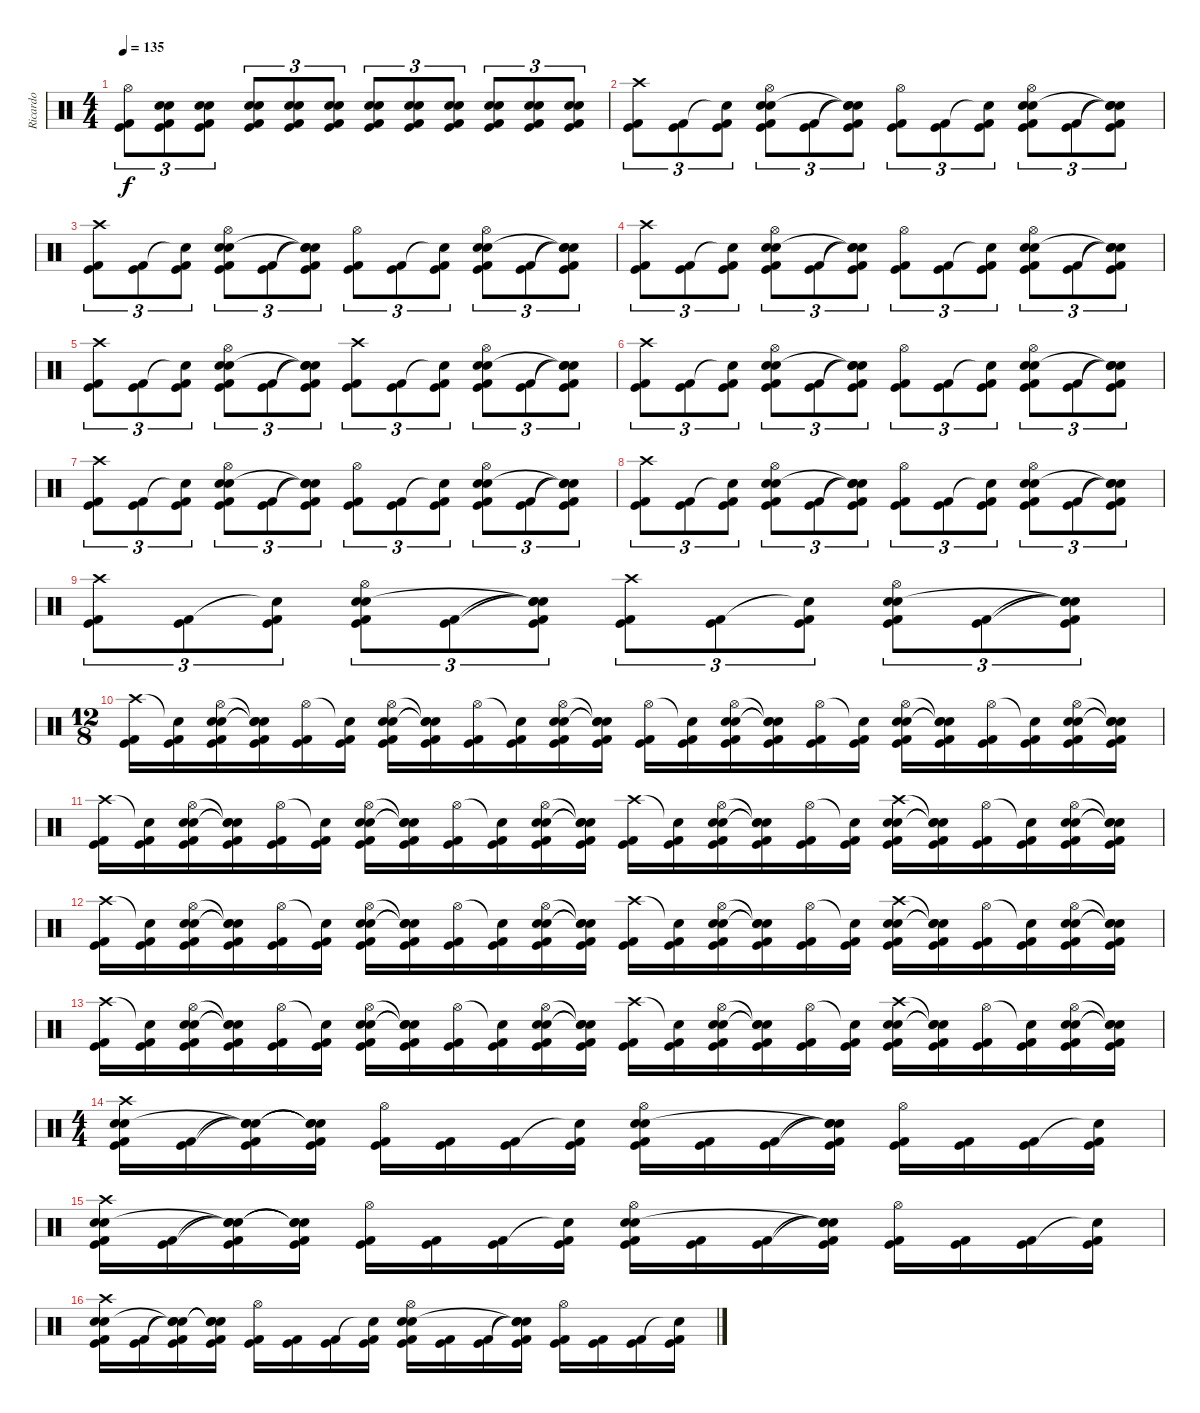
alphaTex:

\track ("Ricardo" "Ricardo") {instrument percussion}
\staff {score}
\articulation defaults
\ts (4 4)
\tempo 135
\clef neutral
\ks c
("Hi-Hat (open)" "Kick (hit) 2" "Kick (hit)").8{tu (3 2) dy f} ("Electric Snare (hit)" "Snare (hit) 2" "Kick (hit) 2" "Kick (hit)").8{tu (3 2)} ("Electric Snare (hit)" "Snare (hit) 2" "Kick (hit) 2" "Kick (hit)").8{tu (3 2)} ("Electric Snare (hit)" "Snare (hit) 2" "Kick (hit) 2" "Kick (hit)").8{tu (3 2)} ("Electric Snare (hit)" "Snare (hit) 2" "Kick (hit) 2" "Kick (hit)").8{tu (3 2)} ("Electric Snare (hit)" "Snare (hit) 2" "Kick (hit) 2" "Kick (hit)").8{tu (3 2)} ("Electric Snare (hit)" "Snare (hit) 2" "Kick (hit) 2" "Kick (hit)").8{tu (3 2)} ("Electric Snare (hit)" "Snare (hit) 2" "Kick (hit) 2" "Kick (hit)").8{tu (3 2)} ("Electric Snare (hit)" "Snare (hit) 2" "Kick (hit) 2" "Kick (hit)").8{tu (3 2)} ("Electric Snare (hit)" "Snare (hit) 2" "Kick (hit) 2" "Kick (hit)").8{tu (3 2)} ("Electric Snare (hit)" "Snare (hit) 2" "Kick (hit) 2" "Kick (hit)").8{tu (3 2)} ("Electric Snare (hit)" "Snare (hit) 2" "Kick (hit) 2" "Kick (hit)").8{tu (3 2)} |
("Crash high (hit)" "Kick (hit) 2" "Kick (hit)").8{tu (3 2)} ("Kick (hit) 2" "Kick (hit)").8{tu (3 2)} ("Snare (hit)"{t} "Kick (hit) 2" "Kick (hit)").8{tu (3 2)} ("Hi-Hat (open)" "Electric Snare (hit)" "Snare (hit) 2" "Kick (hit) 2" "Kick (hit)").8{tu (3 2)} ("Kick (hit) 2" "Kick (hit)").8{tu (3 2)} ("Snare (hit)"{t} "Snare (hit)"{t} "Snare (hit)"{t} "Kick (hit) 2" "Kick (hit)").8{tu (3 2)} ("Hi-Hat (open)" "Kick (hit) 2" "Kick (hit)").8{tu (3 2)} ("Kick (hit) 2" "Kick (hit)").8{tu (3 2)} ("Snare (hit)"{t} "Kick (hit) 2" "Kick (hit)").8{tu (3 2)} ("Hi-Hat (open)" "Electric Snare (hit)" "Snare (hit) 2" "Kick (hit) 2" "Kick (hit)").8{tu (3 2)} ("Kick (hit) 2" "Kick (hit)").8{tu (3 2)} ("Snare (hit)"{t} "Snare (hit)"{t} "Snare (hit)"{t} "Kick (hit) 2" "Kick (hit)").8{tu (3 2)} |
("Crash high (hit)" "Kick (hit) 2" "Kick (hit)").8{tu (3 2)} ("Kick (hit) 2" "Kick (hit)").8{tu (3 2)} ("Snare (hit)"{t} "Kick (hit) 2" "Kick (hit)").8{tu (3 2)} ("Hi-Hat (open)" "Electric Snare (hit)" "Snare (hit) 2" "Kick (hit) 2" "Kick (hit)").8{tu (3 2)} ("Kick (hit) 2" "Kick (hit)").8{tu (3 2)} ("Snare (hit)"{t} "Snare (hit)"{t} "Snare (hit)"{t} "Kick (hit) 2" "Kick (hit)").8{tu (3 2)} ("Hi-Hat (open)" "Kick (hit) 2" "Kick (hit)").8{tu (3 2)} ("Kick (hit) 2" "Kick (hit)").8{tu (3 2)} ("Snare (hit)"{t} "Kick (hit) 2" "Kick (hit)").8{tu (3 2)} ("Hi-Hat (open)" "Electric Snare (hit)" "Snare (hit) 2" "Kick (hit) 2" "Kick (hit)").8{tu (3 2)} ("Kick (hit) 2" "Kick (hit)").8{tu (3 2)} ("Snare (hit)"{t} "Snare (hit)"{t} "Snare (hit)"{t} "Kick (hit) 2" "Kick (hit)").8{tu (3 2)} |
("Crash high (hit)" "Kick (hit) 2" "Kick (hit)").8{tu (3 2)} ("Kick (hit) 2" "Kick (hit)").8{tu (3 2)} ("Snare (hit)"{t} "Kick (hit) 2" "Kick (hit)").8{tu (3 2)} ("Hi-Hat (open)" "Electric Snare (hit)" "Snare (hit) 2" "Kick (hit) 2" "Kick (hit)").8{tu (3 2)} ("Kick (hit) 2" "Kick (hit)").8{tu (3 2)} ("Snare (hit)"{t} "Snare (hit)"{t} "Snare (hit)"{t} "Kick (hit) 2" "Kick (hit)").8{tu (3 2)} ("Hi-Hat (open)" "Kick (hit) 2" "Kick (hit)").8{tu (3 2)} ("Kick (hit) 2" "Kick (hit)").8{tu (3 2)} ("Snare (hit)"{t} "Kick (hit) 2" "Kick (hit)").8{tu (3 2)} ("Hi-Hat (open)" "Electric Snare (hit)" "Snare (hit) 2" "Kick (hit) 2" "Kick (hit)").8{tu (3 2)} ("Kick (hit) 2" "Kick (hit)").8{tu (3 2)} ("Snare (hit)"{t} "Snare (hit)"{t} "Snare (hit)"{t} "Kick (hit) 2" "Kick (hit)").8{tu (3 2)} |
("Crash high (hit)" "Kick (hit) 2" "Kick (hit)").8{tu (3 2)} ("Kick (hit) 2" "Kick (hit)").8{tu (3 2)} ("Snare (hit)"{t} "Kick (hit) 2" "Kick (hit)").8{tu (3 2)} ("Hi-Hat (open)" "Electric Snare (hit)" "Snare (hit) 2" "Kick (hit) 2" "Kick (hit)").8{tu (3 2)} ("Kick (hit) 2" "Kick (hit)").8{tu (3 2)} ("Snare (hit)"{t} "Snare (hit)"{t} "Snare (hit)"{t} "Kick (hit) 2" "Kick (hit)").8{tu (3 2)} ("Crash high (hit)" "Kick (hit) 2" "Kick (hit)").8{tu (3 2)} ("Kick (hit) 2" "Kick (hit)").8{tu (3 2)} ("Snare (hit)"{t} "Kick (hit) 2" "Kick (hit)").8{tu (3 2)} ("Hi-Hat (open)" "Electric Snare (hit)" "Snare (hit) 2" "Kick (hit) 2" "Kick (hit)").8{tu (3 2)} ("Kick (hit) 2" "Kick (hit)").8{tu (3 2)} ("Snare (hit)"{t} "Snare (hit)"{t} "Snare (hit)"{t} "Kick (hit) 2" "Kick (hit)").8{tu (3 2)} |
("Crash high (hit)" "Kick (hit) 2" "Kick (hit)").8{tu (3 2)} ("Kick (hit) 2" "Kick (hit)").8{tu (3 2)} ("Snare (hit)"{t} "Kick (hit) 2" "Kick (hit)").8{tu (3 2)} ("Hi-Hat (open)" "Electric Snare (hit)" "Snare (hit) 2" "Kick (hit) 2" "Kick (hit)").8{tu (3 2)} ("Kick (hit) 2" "Kick (hit)").8{tu (3 2)} ("Snare (hit)"{t} "Snare (hit)"{t} "Snare (hit)"{t} "Kick (hit) 2" "Kick (hit)").8{tu (3 2)} ("Hi-Hat (open)" "Kick (hit) 2" "Kick (hit)").8{tu (3 2)} ("Kick (hit) 2" "Kick (hit)").8{tu (3 2)} ("Snare (hit)"{t} "Kick (hit) 2" "Kick (hit)").8{tu (3 2)} ("Hi-Hat (open)" "Electric Snare (hit)" "Snare (hit) 2" "Kick (hit) 2" "Kick (hit)").8{tu (3 2)} ("Kick (hit) 2" "Kick (hit)").8{tu (3 2)} ("Snare (hit)"{t} "Snare (hit)"{t} "Snare (hit)"{t} "Kick (hit) 2" "Kick (hit)").8{tu (3 2)} |
("Crash high (hit)" "Kick (hit) 2" "Kick (hit)").8{tu (3 2)} ("Kick (hit) 2" "Kick (hit)").8{tu (3 2)} ("Snare (hit)"{t} "Kick (hit) 2" "Kick (hit)").8{tu (3 2)} ("Hi-Hat (open)" "Electric Snare (hit)" "Snare (hit) 2" "Kick (hit) 2" "Kick (hit)").8{tu (3 2)} ("Kick (hit) 2" "Kick (hit)").8{tu (3 2)} ("Snare (hit)"{t} "Snare (hit)"{t} "Snare (hit)"{t} "Kick (hit) 2" "Kick (hit)").8{tu (3 2)} ("Hi-Hat (open)" "Kick (hit) 2" "Kick (hit)").8{tu (3 2)} ("Kick (hit) 2" "Kick (hit)").8{tu (3 2)} ("Snare (hit)"{t} "Kick (hit) 2" "Kick (hit)").8{tu (3 2)} ("Hi-Hat (open)" "Electric Snare (hit)" "Snare (hit) 2" "Kick (hit) 2" "Kick (hit)").8{tu (3 2)} ("Kick (hit) 2" "Kick (hit)").8{tu (3 2)} ("Snare (hit)"{t} "Snare (hit)"{t} "Snare (hit)"{t} "Kick (hit) 2" "Kick (hit)").8{tu (3 2)} |
("Crash high (hit)" "Kick (hit) 2" "Kick (hit)").8{tu (3 2)} ("Kick (hit) 2" "Kick (hit)").8{tu (3 2)} ("Snare (hit)"{t} "Kick (hit) 2" "Kick (hit)").8{tu (3 2)} ("Hi-Hat (open)" "Electric Snare (hit)" "Snare (hit) 2" "Kick (hit) 2" "Kick (hit)").8{tu (3 2)} ("Kick (hit) 2" "Kick (hit)").8{tu (3 2)} ("Snare (hit)"{t} "Snare (hit)"{t} "Snare (hit)"{t} "Kick (hit) 2" "Kick (hit)").8{tu (3 2)} ("Hi-Hat (open)" "Kick (hit) 2" "Kick (hit)").8{tu (3 2)} ("Kick (hit) 2" "Kick (hit)").8{tu (3 2)} ("Snare (hit)"{t} "Kick (hit) 2" "Kick (hit)").8{tu (3 2)} ("Hi-Hat (open)" "Electric Snare (hit)" "Snare (hit) 2" "Kick (hit) 2" "Kick (hit)").8{tu (3 2)} ("Kick (hit) 2" "Kick (hit)").8{tu (3 2)} ("Snare (hit)"{t} "Snare (hit)"{t} "Snare (hit)"{t} "Kick (hit) 2" "Kick (hit)").8{tu (3 2)} |
("Crash high (hit)" "Kick (hit) 2" "Kick (hit)").8{tu (3 2)} ("Kick (hit) 2" "Kick (hit)").8{tu (3 2)} ("Snare (hit)"{t} "Kick (hit) 2" "Kick (hit)").8{tu (3 2)} ("Hi-Hat (open)" "Electric Snare (hit)" "Snare (hit) 2" "Kick (hit) 2" "Kick (hit)").8{tu (3 2)} ("Kick (hit) 2" "Kick (hit)").8{tu (3 2)} ("Snare (hit)"{t} "Snare (hit)"{t} "Snare (hit)"{t} "Kick (hit) 2" "Kick (hit)").8{tu (3 2)} ("Crash high (hit)" "Kick (hit) 2" "Kick (hit)").8{tu (3 2)} ("Kick (hit) 2" "Kick (hit)").8{tu (3 2)} ("Snare (hit)"{t} "Kick (hit) 2" "Kick (hit)").8{tu (3 2)} ("Hi-Hat (open)" "Electric Snare (hit)" "Snare (hit) 2" "Kick (hit) 2" "Kick (hit)").8{tu (3 2)} ("Kick (hit) 2" "Kick (hit)").8{tu (3 2)} ("Snare (hit)"{t} "Snare (hit)"{t} "Snare (hit)"{t} "Kick (hit) 2" "Kick (hit)").8{tu (3 2)} |
\ts (12 8)
("Crash high (hit)" "Kick (hit)" "Kick (hit) 2").16 ("Snare (hit)"{t} "Kick (hit)" "Kick (hit) 2").16 ("Hi-Hat (open)" "Electric Snare (hit)" "Snare (hit) 2" "Kick (hit)" "Kick (hit) 2").16 ("Snare (hit)"{t} "Snare (hit)"{t} "Snare (hit)"{t} "Kick (hit)" "Kick (hit) 2").16 ("Hi-Hat (open)" "Kick (hit)" "Kick (hit) 2").16 ("Snare (hit)"{t} "Kick (hit)" "Kick (hit) 2").16 ("Hi-Hat (open)" "Electric Snare (hit)" "Snare (hit) 2" "Kick (hit)" "Kick (hit) 2").16 ("Snare (hit)"{t} "Snare (hit)"{t} "Snare (hit)"{t} "Kick (hit)" "Kick (hit) 2").16 ("Hi-Hat (open)" "Kick (hit)" "Kick (hit) 2").16 ("Snare (hit)"{t} "Kick (hit)" "Kick (hit) 2").16 ("Hi-Hat (open)" "Electric Snare (hit)" "Snare (hit) 2" "Kick (hit)" "Kick (hit) 2").16 ("Snare (hit)"{t} "Snare (hit)"{t} "Snare (hit)"{t} "Kick (hit)" "Kick (hit) 2").16 ("Hi-Hat (open)" "Kick (hit)" "Kick (hit) 2").16 ("Snare (hit)"{t} "Kick (hit)" "Kick (hit) 2").16 ("Hi-Hat (open)" "Electric Snare (hit)" "Snare (hit) 2" "Kick (hit)" "Kick (hit) 2").16 ("Snare (hit)"{t} "Snare (hit)"{t} "Snare (hit)"{t} "Kick (hit)" "Kick (hit) 2").16 ("Hi-Hat (open)" "Kick (hit)" "Kick (hit) 2").16 ("Snare (hit)"{t} "Kick (hit)" "Kick (hit) 2").16 ("Hi-Hat (open)" "Electric Snare (hit)" "Snare (hit) 2" "Kick (hit)" "Kick (hit) 2").16 ("Snare (hit)"{t} "Snare (hit)"{t} "Snare (hit)"{t} "Kick (hit)" "Kick (hit) 2").16 ("Hi-Hat (open)" "Kick (hit)" "Kick (hit) 2").16 ("Snare (hit)"{t} "Kick (hit)" "Kick (hit) 2").16 ("Electric Snare (hit)" "Snare (hit) 2" "Hi-Hat (open)" "Kick (hit)" "Kick (hit) 2").16 ("Snare (hit)"{t} "Snare (hit)"{t} "Snare (hit)"{t} "Kick (hit)" "Kick (hit) 2").16 |
("Crash high (hit)" "Kick (hit)" "Kick (hit) 2").16 ("Snare (hit)"{t} "Kick (hit)" "Kick (hit) 2").16 ("Hi-Hat (open)" "Electric Snare (hit)" "Snare (hit) 2" "Kick (hit)" "Kick (hit) 2").16 ("Snare (hit)"{t} "Snare (hit)"{t} "Snare (hit)"{t} "Kick (hit)" "Kick (hit) 2").16 ("Hi-Hat (open)" "Kick (hit)" "Kick (hit) 2").16 ("Snare (hit)"{t} "Kick (hit)" "Kick (hit) 2").16 ("Hi-Hat (open)" "Electric Snare (hit)" "Snare (hit) 2" "Kick (hit)" "Kick (hit) 2").16 ("Snare (hit)"{t} "Snare (hit)"{t} "Snare (hit)"{t} "Kick (hit)" "Kick (hit) 2").16 ("Hi-Hat (open)" "Kick (hit)" "Kick (hit) 2").16 ("Snare (hit)"{t} "Kick (hit)" "Kick (hit) 2").16 ("Hi-Hat (open)" "Electric Snare (hit)" "Snare (hit) 2" "Kick (hit)" "Kick (hit) 2").16 ("Snare (hit)"{t} "Snare (hit)"{t} "Snare (hit)"{t} "Kick (hit)" "Kick (hit) 2").16 ("Crash high (hit)" "Kick (hit)" "Kick (hit) 2").16 ("Snare (hit)"{t} "Kick (hit)" "Kick (hit) 2").16 ("Hi-Hat (open)" "Electric Snare (hit)" "Snare (hit) 2" "Kick (hit)" "Kick (hit) 2").16 ("Snare (hit)"{t} "Snare (hit)"{t} "Snare (hit)"{t} "Kick (hit)" "Kick (hit) 2").16 ("Hi-Hat (open)" "Kick (hit)" "Kick (hit) 2").16 ("Snare (hit)"{t} "Kick (hit)" "Kick (hit) 2").16 ("Crash high (hit)" "Electric Snare (hit)" "Snare (hit) 2" "Kick (hit)" "Kick (hit) 2").16 ("Snare (hit)"{t} "Snare (hit)"{t} "Snare (hit)"{t} "Kick (hit)" "Kick (hit) 2").16 ("Hi-Hat (open)" "Kick (hit)" "Kick (hit) 2").16 ("Snare (hit)"{t} "Kick (hit)" "Kick (hit) 2").16 ("Electric Snare (hit)" "Snare (hit) 2" "Hi-Hat (open)" "Kick (hit)" "Kick (hit) 2").16 ("Snare (hit)"{t} "Snare (hit)"{t} "Snare (hit)"{t} "Kick (hit)" "Kick (hit) 2").16 |
("Crash high (hit)" "Kick (hit)" "Kick (hit) 2").16 ("Snare (hit)"{t} "Kick (hit)" "Kick (hit) 2").16 ("Hi-Hat (open)" "Electric Snare (hit)" "Snare (hit) 2" "Kick (hit)" "Kick (hit) 2").16 ("Snare (hit)"{t} "Snare (hit)"{t} "Snare (hit)"{t} "Kick (hit)" "Kick (hit) 2").16 ("Hi-Hat (open)" "Kick (hit)" "Kick (hit) 2").16 ("Snare (hit)"{t} "Kick (hit)" "Kick (hit) 2").16 ("Hi-Hat (open)" "Electric Snare (hit)" "Snare (hit) 2" "Kick (hit)" "Kick (hit) 2").16 ("Snare (hit)"{t} "Snare (hit)"{t} "Snare (hit)"{t} "Kick (hit)" "Kick (hit) 2").16 ("Hi-Hat (open)" "Kick (hit)" "Kick (hit) 2").16 ("Snare (hit)"{t} "Kick (hit)" "Kick (hit) 2").16 ("Hi-Hat (open)" "Electric Snare (hit)" "Snare (hit) 2" "Kick (hit)" "Kick (hit) 2").16 ("Snare (hit)"{t} "Snare (hit)"{t} "Snare (hit)"{t} "Kick (hit)" "Kick (hit) 2").16 ("Crash high (hit)" "Kick (hit)" "Kick (hit) 2").16 ("Snare (hit)"{t} "Kick (hit)" "Kick (hit) 2").16 ("Hi-Hat (open)" "Electric Snare (hit)" "Snare (hit) 2" "Kick (hit)" "Kick (hit) 2").16 ("Snare (hit)"{t} "Snare (hit)"{t} "Snare (hit)"{t} "Kick (hit)" "Kick (hit) 2").16 ("Hi-Hat (open)" "Kick (hit)" "Kick (hit) 2").16 ("Snare (hit)"{t} "Kick (hit)" "Kick (hit) 2").16 ("Crash high (hit)" "Electric Snare (hit)" "Snare (hit) 2" "Kick (hit)" "Kick (hit) 2").16 ("Snare (hit)"{t} "Snare (hit)"{t} "Snare (hit)"{t} "Kick (hit)" "Kick (hit) 2").16 ("Hi-Hat (open)" "Kick (hit)" "Kick (hit) 2").16 ("Snare (hit)"{t} "Kick (hit)" "Kick (hit) 2").16 ("Electric Snare (hit)" "Snare (hit) 2" "Hi-Hat (open)" "Kick (hit)" "Kick (hit) 2").16 ("Snare (hit)"{t} "Snare (hit)"{t} "Snare (hit)"{t} "Kick (hit)" "Kick (hit) 2").16 |
("Crash high (hit)" "Kick (hit)" "Kick (hit) 2").16 ("Snare (hit)"{t} "Kick (hit)" "Kick (hit) 2").16 ("Hi-Hat (open)" "Electric Snare (hit)" "Snare (hit) 2" "Kick (hit)" "Kick (hit) 2").16 ("Snare (hit)"{t} "Snare (hit)"{t} "Snare (hit)"{t} "Kick (hit)" "Kick (hit) 2").16 ("Hi-Hat (open)" "Kick (hit)" "Kick (hit) 2").16 ("Snare (hit)"{t} "Kick (hit)" "Kick (hit) 2").16 ("Hi-Hat (open)" "Electric Snare (hit)" "Snare (hit) 2" "Kick (hit)" "Kick (hit) 2").16 ("Snare (hit)"{t} "Snare (hit)"{t} "Snare (hit)"{t} "Kick (hit)" "Kick (hit) 2").16 ("Hi-Hat (open)" "Kick (hit)" "Kick (hit) 2").16 ("Snare (hit)"{t} "Kick (hit)" "Kick (hit) 2").16 ("Hi-Hat (open)" "Electric Snare (hit)" "Snare (hit) 2" "Kick (hit)" "Kick (hit) 2").16 ("Snare (hit)"{t} "Snare (hit)"{t} "Snare (hit)"{t} "Kick (hit)" "Kick (hit) 2").16 ("Crash high (hit)" "Kick (hit)" "Kick (hit) 2").16 ("Snare (hit)"{t} "Kick (hit)" "Kick (hit) 2").16 ("Hi-Hat (open)" "Electric Snare (hit)" "Snare (hit) 2" "Kick (hit)" "Kick (hit) 2").16 ("Snare (hit)"{t} "Snare (hit)"{t} "Snare (hit)"{t} "Kick (hit)" "Kick (hit) 2").16 ("Hi-Hat (open)" "Kick (hit)" "Kick (hit) 2").16 ("Snare (hit)"{t} "Kick (hit)" "Kick (hit) 2").16 ("Crash high (hit)" "Electric Snare (hit)" "Snare (hit) 2" "Kick (hit)" "Kick (hit) 2").16 ("Snare (hit)"{t} "Snare (hit)"{t} "Snare (hit)"{t} "Kick (hit)" "Kick (hit) 2").16 ("Hi-Hat (open)" "Kick (hit)" "Kick (hit) 2").16 ("Snare (hit)"{t} "Kick (hit)" "Kick (hit) 2").16 ("Electric Snare (hit)" "Snare (hit) 2" "Hi-Hat (open)" "Kick (hit)" "Kick (hit) 2").16 ("Snare (hit)"{t} "Snare (hit)"{t} "Snare (hit)"{t} "Kick (hit)" "Kick (hit) 2").16 |
\ts (4 4)
("Crash high (hit)" "Electric Snare (hit)" "Snare (hit) 2" "Kick (hit)" "Kick (hit) 2").16 ("Kick (hit)" "Kick (hit) 2").16 ("Snare (hit)"{t} "Snare (hit)"{t} "Snare (hit)"{t} "Kick (hit)" "Kick (hit) 2").16 ("Snare (hit)"{t} "Snare (hit)"{t} "Snare (hit)"{t} "Kick (hit)" "Kick (hit) 2").16 ("Hi-Hat (open)" "Kick (hit)" "Kick (hit) 2").16 ("Kick (hit)" "Kick (hit) 2").16 ("Kick (hit)" "Kick (hit) 2").16 ("Snare (hit)"{t} "Kick (hit)" "Kick (hit) 2").16 ("Hi-Hat (open)" "Electric Snare (hit)" "Snare (hit) 2" "Kick (hit)" "Kick (hit) 2").16 ("Kick (hit)" "Kick (hit) 2").16 ("Kick (hit)" "Kick (hit) 2").16 ("Snare (hit)"{t} "Snare (hit)"{t} "Snare (hit)"{t} "Kick (hit)" "Kick (hit) 2").16 ("Hi-Hat (open)" "Kick (hit)" "Kick (hit) 2").16 ("Kick (hit)" "Kick (hit) 2").16 ("Kick (hit)" "Kick (hit) 2").16 ("Snare (hit)"{t} "Kick (hit)" "Kick (hit) 2").16 |
("Crash high (hit)" "Electric Snare (hit)" "Snare (hit) 2" "Kick (hit)" "Kick (hit) 2").16 ("Kick (hit)" "Kick (hit) 2").16 ("Snare (hit)"{t} "Snare (hit)"{t} "Snare (hit)"{t} "Kick (hit)" "Kick (hit) 2").16 ("Snare (hit)"{t} "Snare (hit)"{t} "Snare (hit)"{t} "Kick (hit)" "Kick (hit) 2").16 ("Hi-Hat (open)" "Kick (hit)" "Kick (hit) 2").16 ("Kick (hit)" "Kick (hit) 2").16 ("Kick (hit)" "Kick (hit) 2").16 ("Snare (hit)"{t} "Kick (hit)" "Kick (hit) 2").16 ("Hi-Hat (open)" "Electric Snare (hit)" "Snare (hit) 2" "Kick (hit)" "Kick (hit) 2").16 ("Kick (hit)" "Kick (hit) 2").16 ("Kick (hit)" "Kick (hit) 2").16 ("Snare (hit)"{t} "Snare (hit)"{t} "Snare (hit)"{t} "Kick (hit)" "Kick (hit) 2").16 ("Hi-Hat (open)" "Kick (hit)" "Kick (hit) 2").16 ("Kick (hit)" "Kick (hit) 2").16 ("Kick (hit)" "Kick (hit) 2").16 ("Snare (hit)"{t} "Kick (hit)" "Kick (hit) 2").16 |
("Crash high (hit)" "Electric Snare (hit)" "Snare (hit) 2" "Kick (hit)" "Kick (hit) 2").16 ("Kick (hit)" "Kick (hit) 2").16 ("Snare (hit)"{t} "Snare (hit)"{t} "Snare (hit)"{t} "Kick (hit)" "Kick (hit) 2").16 ("Snare (hit)"{t} "Snare (hit)"{t} "Snare (hit)"{t} "Kick (hit)" "Kick (hit) 2").16 ("Hi-Hat (open)" "Kick (hit)" "Kick (hit) 2").16 ("Kick (hit)" "Kick (hit) 2").16 ("Kick (hit)" "Kick (hit) 2").16 ("Snare (hit)"{t} "Kick (hit)" "Kick (hit) 2").16 ("Hi-Hat (open)" "Electric Snare (hit)" "Snare (hit) 2" "Kick (hit)" "Kick (hit) 2").16 ("Kick (hit)" "Kick (hit) 2").16 ("Kick (hit)" "Kick (hit) 2").16 ("Snare (hit)"{t} "Snare (hit)"{t} "Snare (hit)"{t} "Kick (hit)" "Kick (hit) 2").16 ("Hi-Hat (open)" "Kick (hit)" "Kick (hit) 2").16 ("Kick (hit)" "Kick (hit) 2").16 ("Kick (hit)" "Kick (hit) 2").16 ("Snare (hit)"{t} "Kick (hit)" "Kick (hit) 2").16
